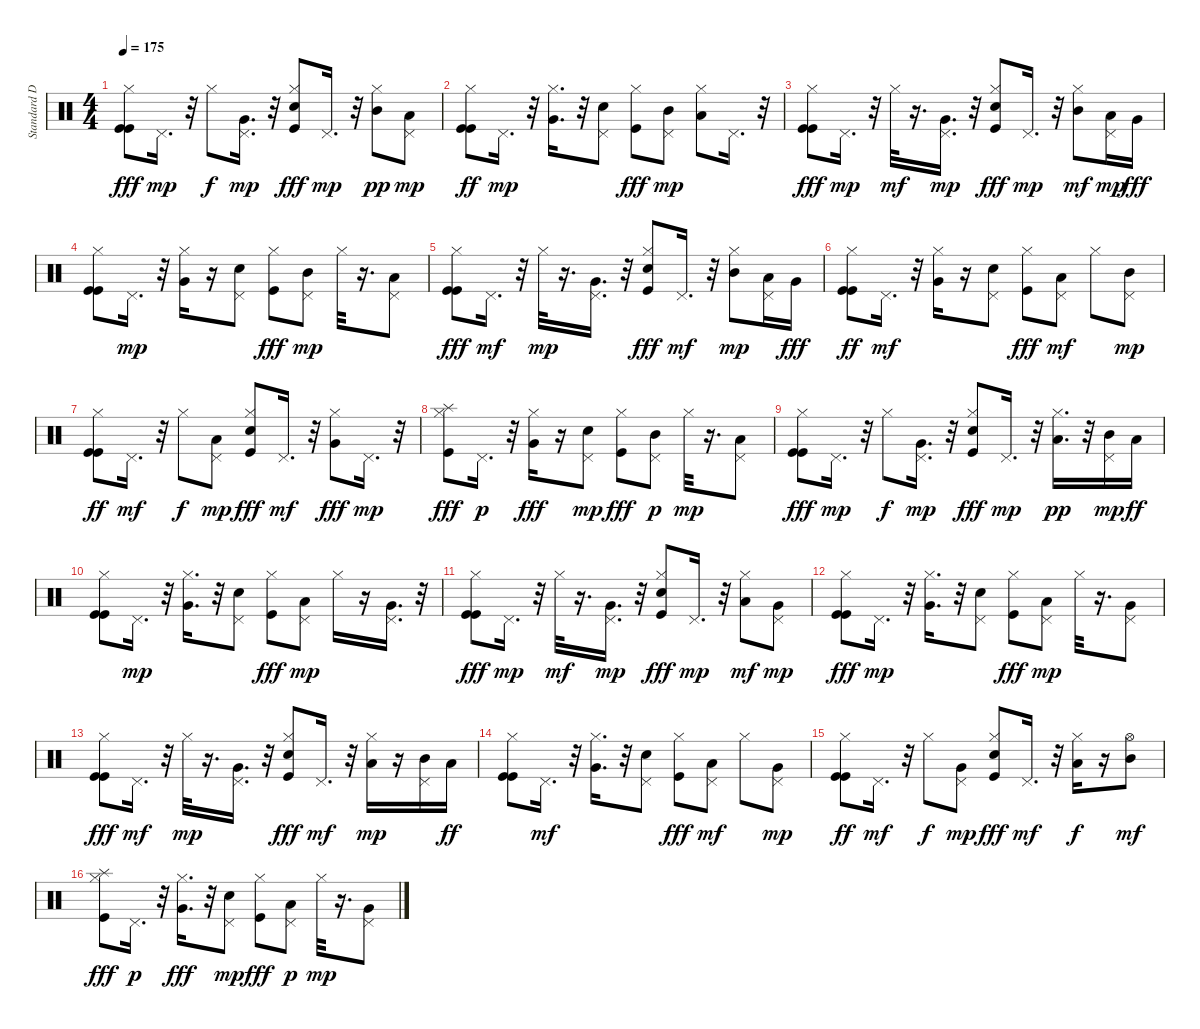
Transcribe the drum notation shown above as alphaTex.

\track ("Standard Drums" "Standard D") {instrument percussion}
\staff {score}
\articulation defaults
\ts (4 4)
\tempo 175
\clef neutral
\ks c
("Kick (hit)" "Kick (hit)" "Hi-Hat (closed)").8{dy fff} "Pedal Hi-Hat (hit)".16{d dy mp} r.32 "Hi-Hat (closed)".8{dy f} ("Very Low Tom (hit)" "Pedal Hi-Hat (hit)").16{d dy mp} r.32 ("Snare (hit) 2" "Kick (hit)" "Hi-Hat (closed)").8{dy fff} "Pedal Hi-Hat (hit)".16{d dy mp} r.32 ("Mid Tom (hit)" "Hi-Hat (closed)").8{dy pp} ("Low Tom (hit)" "Pedal Hi-Hat (hit)").8{dy mp} |
("Kick (hit)" "Kick (hit)" "Hi-Hat (closed)").8{dy ff} "Pedal Hi-Hat (hit)".16{d dy mp} r.32 ("Very Low Tom (hit)" "Hi-Hat (closed)").16{d} r.32 ("Snare (hit) 2" "Pedal Hi-Hat (hit)").8 ("Kick (hit)" "Hi-Hat (closed)").8{dy fff} ("Mid Tom (hit)" "Pedal Hi-Hat (hit)").8{dy mp} ("Low Tom (hit)" "Hi-Hat (closed)").8 "Pedal Hi-Hat (hit)".16{d} r.32 |
("Kick (hit)" "Kick (hit)" "Hi-Hat (closed)").8{dy fff} "Pedal Hi-Hat (hit)".16{d dy mp} r.32 "Hi-Hat (closed)".32{dy mf} r.16{d} ("Very Low Tom (hit)" "Pedal Hi-Hat (hit)").16{d dy mp} r.32 ("Snare (hit) 2" "Kick (hit)" "Hi-Hat (closed)").8{dy fff} "Pedal Hi-Hat (hit)".16{d dy mp} r.32 ("Mid Tom (hit)" "Hi-Hat (closed)").8{dy mf} ("Low Tom (hit)" "Pedal Hi-Hat (hit)").16{dy mp} "Very Low Tom (hit)".16{dy fff} |
("Kick (hit)" "Kick (hit)" "Hi-Hat (closed)").8 "Pedal Hi-Hat (hit)".16{d dy mp} r.32 ("Very Low Tom (hit)" "Hi-Hat (closed)").16 r.16 ("Snare (hit) 2" "Pedal Hi-Hat (hit)").8 ("Kick (hit)" "Hi-Hat (closed)").8{dy fff} ("Mid Tom (hit)" "Pedal Hi-Hat (hit)").8{dy mp} "Hi-Hat (closed)".32 r.16{d} ("Low Tom (hit)" "Pedal Hi-Hat (hit)").8 |
("Kick (hit)" "Kick (hit)" "Hi-Hat (closed)").8{dy fff} "Pedal Hi-Hat (hit)".16{d dy mf} r.32 "Hi-Hat (closed)".32{dy mp} r.16{d} ("Very Low Tom (hit)" "Pedal Hi-Hat (hit)").16{d} r.32 ("Snare (hit) 2" "Kick (hit)" "Hi-Hat (closed)").8{dy fff} "Pedal Hi-Hat (hit)".16{d dy mf} r.32 ("Mid Tom (hit)" "Hi-Hat (closed)").8{dy mp} ("Low Tom (hit)" "Pedal Hi-Hat (hit)").16 "Very Low Tom (hit)".16{dy fff} |
("Kick (hit)" "Kick (hit)" "Hi-Hat (closed)").8{dy ff} "Pedal Hi-Hat (hit)".16{d dy mf} r.32 ("Very Low Tom (hit)" "Hi-Hat (closed)").16 r.16 ("Snare (hit) 2" "Pedal Hi-Hat (hit)").8 ("Kick (hit)" "Hi-Hat (closed)").8{dy fff} ("Low Tom (hit)" "Pedal Hi-Hat (hit)").8{dy mf} "Hi-Hat (closed)".8 ("Mid Tom (hit)" "Pedal Hi-Hat (hit)").8{dy mp} |
("Kick (hit)" "Kick (hit)" "Hi-Hat (closed)").8{dy ff} "Pedal Hi-Hat (hit)".16{d dy mf} r.32 "Hi-Hat (closed)".8{dy f} ("Low Tom (hit)" "Pedal Hi-Hat (hit)").8{dy mp} ("Snare (hit) 2" "Kick (hit)" "Hi-Hat (closed)").8{dy fff} "Pedal Hi-Hat (hit)".16{d dy mf} r.32 ("Very Low Tom (hit)" "Hi-Hat (closed)").8{dy fff} "Pedal Hi-Hat (hit)".16{d dy mp} r.32 |
("Kick (hit)" "Splash (hit)" "Hi-Hat (closed)").8{dy fff} "Pedal Hi-Hat (hit)".16{d dy p} r.32 ("Very Low Tom (hit)" "Hi-Hat (closed)").16{dy fff} r.16 ("Snare (hit) 2" "Pedal Hi-Hat (hit)").8{dy mp} ("Kick (hit)" "Hi-Hat (closed)").8{dy fff} ("Mid Tom (hit)" "Pedal Hi-Hat (hit)").8{dy p} "Hi-Hat (closed)".32{dy mp} r.16{d} ("Low Tom (hit)" "Pedal Hi-Hat (hit)").8 |
("Kick (hit)" "Kick (hit)" "Hi-Hat (closed)").8{dy fff} "Pedal Hi-Hat (hit)".16{d dy mp} r.32 "Hi-Hat (closed)".8{dy f} ("Very Low Tom (hit)" "Pedal Hi-Hat (hit)").16{d dy mp} r.32 ("Snare (hit) 2" "Kick (hit)" "Hi-Hat (closed)").8{dy fff} "Pedal Hi-Hat (hit)".16{d dy mp} r.32 ("Low Tom (hit)" "Hi-Hat (closed)").16{d dy pp} r.32 ("Mid Tom (hit)" "Pedal Hi-Hat (hit)").16{dy mp} "Low Tom (hit)".16{dy ff} |
("Kick (hit)" "Kick (hit)" "Hi-Hat (closed)").8 "Pedal Hi-Hat (hit)".16{d dy mp} r.32 ("Very Low Tom (hit)" "Hi-Hat (closed)").16{d} r.32 ("Snare (hit) 2" "Pedal Hi-Hat (hit)").8 ("Kick (hit)" "Hi-Hat (closed)").8{dy fff} ("Low Tom (hit)" "Pedal Hi-Hat (hit)").8{dy mp} "Hi-Hat (closed)".16 r.16 ("Very Low Tom (hit)" "Pedal Hi-Hat (hit)").16{d} r.32 |
("Kick (hit)" "Kick (hit)" "Hi-Hat (closed)").8{dy fff} "Pedal Hi-Hat (hit)".16{d dy mp} r.32 "Hi-Hat (closed)".32{dy mf} r.16{d} ("Very Low Tom (hit)" "Pedal Hi-Hat (hit)").16{d dy mp} r.32 ("Snare (hit) 2" "Kick (hit)" "Hi-Hat (closed)").8{dy fff} "Pedal Hi-Hat (hit)".16{d dy mp} r.32 ("Low Tom (hit)" "Hi-Hat (closed)").8{dy mf} ("Very Low Tom (hit)" "Pedal Hi-Hat (hit)").8{dy mp} |
("Kick (hit)" "Kick (hit)" "Hi-Hat (closed)").8{dy fff} "Pedal Hi-Hat (hit)".16{d dy mp} r.32 ("Very Low Tom (hit)" "Hi-Hat (closed)").16{d} r.32 ("Snare (hit) 2" "Pedal Hi-Hat (hit)").8 ("Kick (hit)" "Hi-Hat (closed)").8{dy fff} ("Low Tom (hit)" "Pedal Hi-Hat (hit)").8{dy mp} "Hi-Hat (closed)".32 r.16{d} ("Very Low Tom (hit)" "Pedal Hi-Hat (hit)").8 |
("Kick (hit)" "Kick (hit)" "Hi-Hat (closed)").8{dy fff} "Pedal Hi-Hat (hit)".16{d dy mf} r.32 "Hi-Hat (closed)".32{dy mp} r.16{d} ("Very Low Tom (hit)" "Pedal Hi-Hat (hit)").16{d} r.32 ("Snare (hit) 2" "Kick (hit)" "Hi-Hat (closed)").8{dy fff} "Pedal Hi-Hat (hit)".16{d dy mf} r.32 ("Low Tom (hit)" "Hi-Hat (closed)").16{dy mp} r.16 ("Mid Tom (hit)" "Pedal Hi-Hat (hit)").16 "Low Tom (hit)".16{dy ff} |
("Kick (hit)" "Kick (hit)" "Hi-Hat (closed)").8 "Pedal Hi-Hat (hit)".16{d dy mf} r.32 ("Very Low Tom (hit)" "Hi-Hat (closed)").16{d} r.32 ("Snare (hit) 2" "Pedal Hi-Hat (hit)").8 ("Kick (hit)" "Hi-Hat (closed)").8{dy fff} ("Low Tom (hit)" "Pedal Hi-Hat (hit)").8{dy mf} "Hi-Hat (closed)".8 ("Very Low Tom (hit)" "Pedal Hi-Hat (hit)").8{dy mp} |
("Kick (hit)" "Kick (hit)" "Hi-Hat (closed)").8{dy ff} "Pedal Hi-Hat (hit)".16{d dy mf} r.32 "Hi-Hat (closed)".8{dy f} ("Very Low Tom (hit)" "Pedal Hi-Hat (hit)").8{dy mp} ("Snare (hit) 2" "Kick (hit)" "Hi-Hat (closed)").8{dy fff} "Pedal Hi-Hat (hit)".16{d dy mf} r.32 ("Low Tom (hit)" "Hi-Hat (closed)").16{dy f} r.16 ("Mid Tom (hit)" "Hi-Hat (open)").8{dy mf} |
("Kick (hit)" "Splash (hit)" "Hi-Hat (closed)").8{dy fff} "Pedal Hi-Hat (hit)".16{d dy p} r.32 ("Very Low Tom (hit)" "Hi-Hat (closed)").16{d dy fff} r.32 ("Snare (hit) 2" "Pedal Hi-Hat (hit)").8{dy mp} ("Kick (hit)" "Hi-Hat (closed)").8{dy fff} ("Low Tom (hit)" "Pedal Hi-Hat (hit)").8{dy p} "Hi-Hat (closed)".32{dy mp} r.16{d} ("Very Low Tom (hit)" "Pedal Hi-Hat (hit)").8
